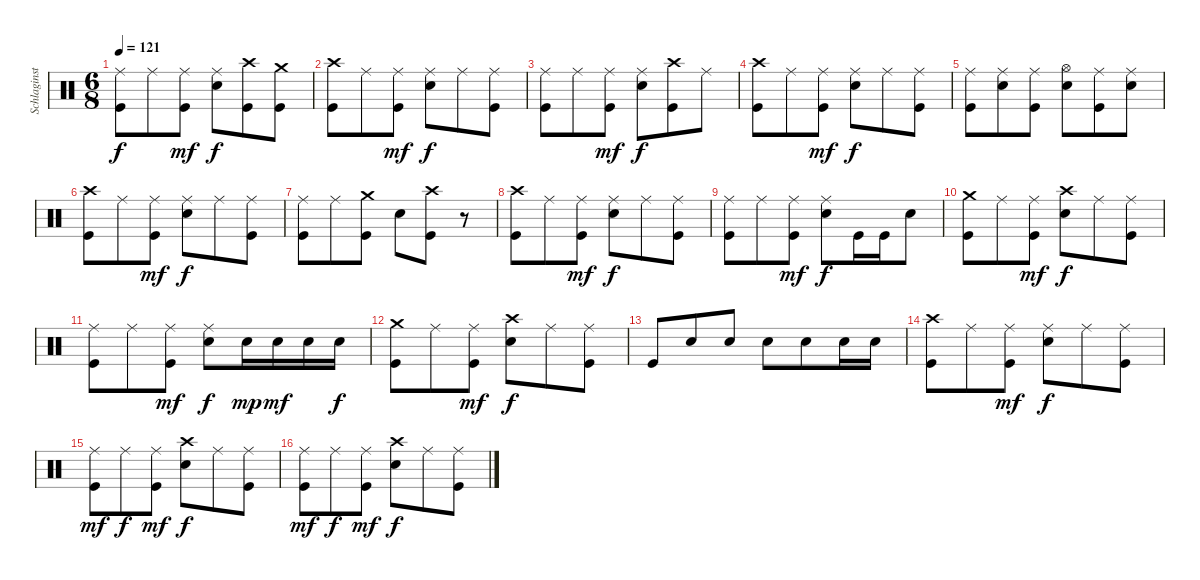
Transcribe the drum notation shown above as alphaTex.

\track ("Schlaginstrumente - Auswahl" "Schlaginst") {instrument percussion}
\staff {score}
\articulation defaults
\ts (6 8)
\tempo 121
\clef neutral
\ks c
("Kick (hit)" "Ride (middle)").8{dy f} "Ride (middle)".8 ("Ride (middle)" "Kick (hit)").8{dy mf} ("Snare (hit) 2" "Ride (middle)").8{dy f} ("Crash high (hit)" "Kick (hit)").8 ("Crash medium (hit)" "Kick (hit)").8 |
("Crash high (hit)" "Kick (hit)").8 "Ride (middle)".8 ("Ride (middle)" "Kick (hit)").8{dy mf} ("Snare (hit) 2" "Ride (middle)").8{dy f} "Ride (middle)".8 ("Ride (middle)" "Kick (hit)").8 |
("Kick (hit)" "Ride (middle)").8 "Ride (middle)".8 ("Ride (middle)" "Kick (hit)").8{dy mf} ("Snare (hit) 2" "Ride (middle)").8{dy f} ("Crash high (hit)" "Kick (hit)").8 "Ride (middle)".8 |
("Crash high (hit)" "Kick (hit)").8 "Ride (middle)".8 ("Ride (middle)" "Kick (hit)").8{dy mf} ("Snare (hit) 2" "Ride (middle)").8{dy f} "Ride (middle)".8 ("Ride (middle)" "Kick (hit)").8 |
("Ride (middle)" "Kick (hit)").8 ("Snare (hit) 2" "Ride (middle)").8 ("Ride (middle)" "Kick (hit)").8 ("Snare (hit) 2" "Hi-Hat (open)").8 ("Ride (middle)" "Kick (hit)").8 ("Snare (hit) 2" "Ride (middle)").8 |
("Crash high (hit)" "Kick (hit)").8 "Ride (middle)".8 ("Ride (middle)" "Kick (hit)").8{dy mf} ("Ride (middle)" "Snare (hit) 2").8{dy f} "Ride (middle)".8 ("Ride (middle)" "Kick (hit)").8 |
("Kick (hit)" "Ride (middle)").8 "Ride (middle)".8 ("Crash medium (hit)" "Kick (hit)").8 "Snare (hit) 2".8 ("Crash high (hit)" "Kick (hit)").8 r.8 |
("Crash high (hit)" "Kick (hit)").8 "Ride (middle)".8 ("Ride (middle)" "Kick (hit)").8{dy mf} ("Ride (middle)" "Snare (hit) 2").8{dy f} "Ride (middle)".8 ("Ride (middle)" "Kick (hit)").8 |
("Kick (hit)" "Ride (middle)").8 "Ride (middle)".8 ("Ride (middle)" "Kick (hit)").8{dy mf} ("Ride (middle)" "Snare (hit) 2").8{dy f} "Kick (hit)".16 "Kick (hit)".16 "Snare (hit) 2".8 |
("Crash medium (hit)" "Kick (hit)").8 "Ride (middle)".8 ("Ride (middle)" "Kick (hit)").8{dy mf} ("Crash high (hit)" "Snare (hit) 2").8{dy f} "Ride (middle)".8 ("Ride (middle)" "Kick (hit)").8 |
("Kick (hit)" "Ride (middle)").8 "Ride (middle)".8 ("Ride (middle)" "Kick (hit)").8{dy mf} ("Snare (hit) 2" "Ride (middle)").8{dy f} "Snare (hit) 2".16{dy mp} "Snare (hit) 2".16{dy mf} "Snare (hit) 2".16 "Snare (hit) 2".16{dy f} |
("Crash medium (hit)" "Kick (hit)").8 "Ride (middle)".8 ("Ride (middle)" "Kick (hit)").8{dy mf} ("Crash high (hit)" "Snare (hit) 2").8{dy f} "Ride (middle)".8 ("Ride (middle)" "Kick (hit)").8 |
"Kick (hit)".8 "Snare (hit) 2".8 "Snare (hit) 2".8 "Snare (hit) 2".8 "Snare (hit) 2".8 "Snare (hit) 2".16 "Snare (hit) 2".16 |
("Crash high (hit)" "Kick (hit)").8 "Ride (middle)".8 ("Ride (middle)" "Kick (hit)").8{dy mf} ("Ride (middle)" "Snare (hit) 2").8{dy f} "Ride (middle)".8 ("Ride (middle)" "Kick (hit)").8 |
("Ride (middle)" "Kick (hit)").8{dy mf} "Ride (middle)".8{dy f} ("Ride (middle)" "Kick (hit)").8{dy mf} ("Crash high (hit)" "Snare (hit) 2").8{dy f} "Ride (middle)".8 ("Ride (middle)" "Kick (hit)").8 |
("Ride (middle)" "Kick (hit)").8{dy mf} "Ride (middle)".8{dy f} ("Ride (middle)" "Kick (hit)").8{dy mf} ("Crash high (hit)" "Snare (hit) 2").8{dy f} "Ride (middle)".8 ("Ride (middle)" "Kick (hit)").8
